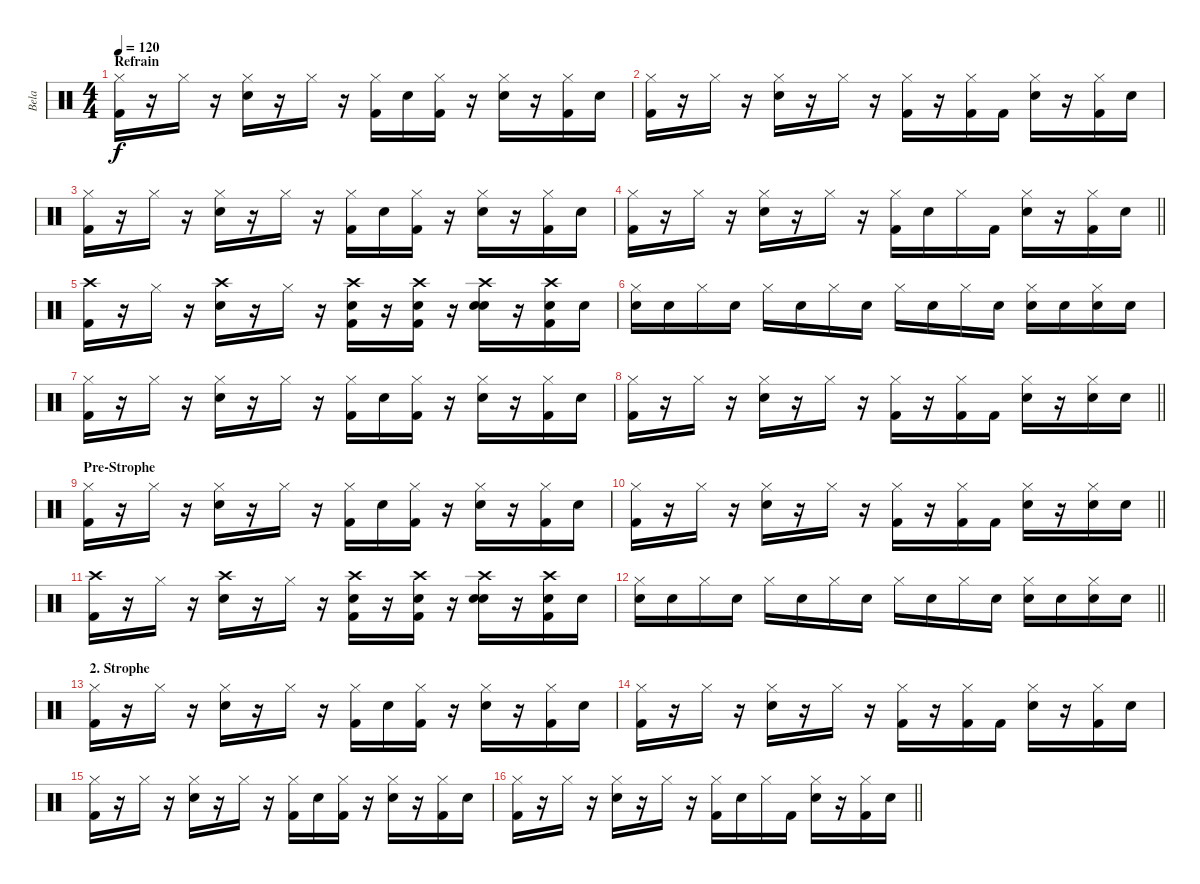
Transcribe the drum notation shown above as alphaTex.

\track ("Bela" "Bela") {instrument percussion}
\staff {score}
\articulation defaults
\ts (4 4)
\section ("" "Refrain")
\tempo 120
\clef neutral
\ks c
("Hi-Hat (closed)" "Kick (hit) 2").16{dy f} r.16 "Hi-Hat (closed)".16 r.16 ("Hi-Hat (closed)" "Electric Snare (hit)").16 r.16 "Hi-Hat (closed)".16 r.16 ("Hi-Hat (closed)" "Kick (hit) 2").16 "Electric Snare (hit)".16 ("Hi-Hat (closed)" "Kick (hit) 2").16 r.16 ("Hi-Hat (closed)" "Electric Snare (hit)").16 r.16 ("Hi-Hat (closed)" "Kick (hit) 2").16 "Electric Snare (hit)".16 |
("Hi-Hat (closed)" "Kick (hit) 2").16 r.16 "Hi-Hat (closed)".16 r.16 ("Hi-Hat (closed)" "Electric Snare (hit)").16 r.16 "Hi-Hat (closed)".16 r.16 ("Hi-Hat (closed)" "Kick (hit) 2").16 r.16 ("Hi-Hat (closed)" "Kick (hit) 2").16 "Kick (hit) 2".16 ("Hi-Hat (closed)" "Electric Snare (hit)").16 r.16 ("Hi-Hat (closed)" "Kick (hit) 2").16 "Electric Snare (hit)".16 |
("Hi-Hat (closed)" "Kick (hit) 2").16 r.16 "Hi-Hat (closed)".16 r.16 ("Hi-Hat (closed)" "Electric Snare (hit)").16 r.16 "Hi-Hat (closed)".16 r.16 ("Hi-Hat (closed)" "Kick (hit) 2").16 "Electric Snare (hit)".16 ("Hi-Hat (closed)" "Kick (hit) 2").16 r.16 ("Hi-Hat (closed)" "Electric Snare (hit)").16 r.16 ("Hi-Hat (closed)" "Kick (hit) 2").16 "Electric Snare (hit)".16 |
\barLineRight lightlight
("Hi-Hat (closed)" "Kick (hit) 2").16 r.16 "Hi-Hat (closed)".16 r.16 ("Hi-Hat (closed)" "Electric Snare (hit)").16 r.16 "Hi-Hat (closed)".16 r.16 ("Hi-Hat (closed)" "Kick (hit) 2").16 "Snare (hit) 2".16 "Hi-Hat (closed)".16 "Kick (hit) 2".16 ("Hi-Hat (closed)" "Electric Snare (hit)").16 r.16 ("Hi-Hat (closed)" "Kick (hit) 2").16 "Electric Snare (hit)".16 |
("Crash high (hit)" "Kick (hit) 2").16 r.16 "Hi-Hat (closed)".16 r.16 ("Crash high (hit)" "Electric Snare (hit)").16 r.16 "Hi-Hat (closed)".16 r.16 ("Crash high (hit)" "Kick (hit) 2" "Electric Snare (hit)").16 r.16 ("Crash high (hit)" "Kick (hit) 2" "Electric Snare (hit)").16 r.16 ("Crash high (hit)" "Electric Snare (hit)" "Snare (hit) 2").16 r.16 ("Crash high (hit)" "Kick (hit) 2" "Electric Snare (hit)").16 "Electric Snare (hit)".16 |
("Hi-Hat (closed)" "Electric Snare (hit)").16 "Snare (hit) 2".16 "Hi-Hat (closed)".16 "Electric Snare (hit)".16 "Hi-Hat (closed)".16 "Electric Snare (hit)".16 "Hi-Hat (closed)".16 "Electric Snare (hit)".16 "Hi-Hat (closed)".16 "Electric Snare (hit)".16 "Hi-Hat (closed)".16 "Electric Snare (hit)".16 ("Hi-Hat (closed)" "Electric Snare (hit)").16 "Electric Snare (hit)".16 ("Hi-Hat (closed)" "Electric Snare (hit)").16 "Electric Snare (hit)".16 |
("Hi-Hat (closed)" "Kick (hit) 2").16 r.16 "Hi-Hat (closed)".16 r.16 ("Hi-Hat (closed)" "Electric Snare (hit)").16 r.16 "Hi-Hat (closed)".16 r.16 ("Hi-Hat (closed)" "Kick (hit) 2").16 "Electric Snare (hit)".16 ("Hi-Hat (closed)" "Kick (hit) 2").16 r.16 ("Hi-Hat (closed)" "Electric Snare (hit)").16 r.16 ("Hi-Hat (closed)" "Kick (hit) 2").16 "Electric Snare (hit)".16 |
\barLineRight lightlight
("Hi-Hat (closed)" "Kick (hit) 2").16 r.16 "Hi-Hat (closed)".16 r.16 ("Hi-Hat (closed)" "Electric Snare (hit)").16 r.16 "Hi-Hat (closed)".16 r.16 ("Hi-Hat (closed)" "Kick (hit) 2").16 r.16 ("Hi-Hat (closed)" "Kick (hit) 2").16 "Kick (hit) 2".16 ("Hi-Hat (closed)" "Electric Snare (hit)").16 r.16 ("Hi-Hat (closed)" "Electric Snare (hit)").16 "Electric Snare (hit)".16 |
\section ("" "Pre-Strophe")
("Hi-Hat (closed)" "Kick (hit) 2").16 r.16 "Hi-Hat (closed)".16 r.16 ("Hi-Hat (closed)" "Electric Snare (hit)").16 r.16 "Hi-Hat (closed)".16 r.16 ("Hi-Hat (closed)" "Kick (hit) 2").16 "Electric Snare (hit)".16 ("Hi-Hat (closed)" "Kick (hit) 2").16 r.16 ("Hi-Hat (closed)" "Electric Snare (hit)").16 r.16 ("Hi-Hat (closed)" "Kick (hit) 2").16 "Electric Snare (hit)".16 |
\barLineRight lightlight
("Hi-Hat (closed)" "Kick (hit) 2").16 r.16 "Hi-Hat (closed)".16 r.16 ("Hi-Hat (closed)" "Electric Snare (hit)").16 r.16 "Hi-Hat (closed)".16 r.16 ("Hi-Hat (closed)" "Kick (hit) 2").16 r.16 ("Hi-Hat (closed)" "Kick (hit) 2").16 "Kick (hit) 2".16 ("Hi-Hat (closed)" "Electric Snare (hit)").16 r.16 ("Hi-Hat (closed)" "Electric Snare (hit)").16 "Electric Snare (hit)".16 |
("Crash high (hit)" "Kick (hit) 2").16 r.16 "Hi-Hat (closed)".16 r.16 ("Crash high (hit)" "Electric Snare (hit)").16 r.16 "Hi-Hat (closed)".16 r.16 ("Crash high (hit)" "Kick (hit) 2" "Electric Snare (hit)").16 r.16 ("Crash high (hit)" "Kick (hit) 2" "Electric Snare (hit)").16 r.16 ("Crash high (hit)" "Electric Snare (hit)" "Snare (hit) 2").16 r.16 ("Crash high (hit)" "Kick (hit) 2" "Electric Snare (hit)").16 "Electric Snare (hit)".16 |
\barLineRight lightlight
("Hi-Hat (closed)" "Electric Snare (hit)").16 "Snare (hit) 2".16 "Hi-Hat (closed)".16 "Electric Snare (hit)".16 "Hi-Hat (closed)".16 "Electric Snare (hit)".16 "Hi-Hat (closed)".16 "Electric Snare (hit)".16 "Hi-Hat (closed)".16 "Electric Snare (hit)".16 "Hi-Hat (closed)".16 "Electric Snare (hit)".16 ("Hi-Hat (closed)" "Electric Snare (hit)").16 "Electric Snare (hit)".16 ("Hi-Hat (closed)" "Electric Snare (hit)").16 "Electric Snare (hit)".16 |
\section ("" "2. Strophe")
("Hi-Hat (closed)" "Kick (hit) 2").16 r.16 "Hi-Hat (closed)".16 r.16 ("Hi-Hat (closed)" "Electric Snare (hit)").16 r.16 "Hi-Hat (closed)".16 r.16 ("Hi-Hat (closed)" "Kick (hit) 2").16 "Electric Snare (hit)".16 ("Hi-Hat (closed)" "Kick (hit) 2").16 r.16 ("Hi-Hat (closed)" "Electric Snare (hit)").16 r.16 ("Hi-Hat (closed)" "Kick (hit) 2").16 "Electric Snare (hit)".16 |
("Hi-Hat (closed)" "Kick (hit) 2").16 r.16 "Hi-Hat (closed)".16 r.16 ("Hi-Hat (closed)" "Electric Snare (hit)").16 r.16 "Hi-Hat (closed)".16 r.16 ("Hi-Hat (closed)" "Kick (hit) 2").16 r.16 ("Hi-Hat (closed)" "Kick (hit) 2").16 "Kick (hit) 2".16 ("Hi-Hat (closed)" "Electric Snare (hit)").16 r.16 ("Hi-Hat (closed)" "Kick (hit) 2").16 "Electric Snare (hit)".16 |
("Hi-Hat (closed)" "Kick (hit) 2").16 r.16 "Hi-Hat (closed)".16 r.16 ("Hi-Hat (closed)" "Electric Snare (hit)").16 r.16 "Hi-Hat (closed)".16 r.16 ("Hi-Hat (closed)" "Kick (hit) 2").16 "Electric Snare (hit)".16 ("Hi-Hat (closed)" "Kick (hit) 2").16 r.16 ("Hi-Hat (closed)" "Electric Snare (hit)").16 r.16 ("Hi-Hat (closed)" "Kick (hit) 2").16 "Electric Snare (hit)".16 |
\barLineRight lightlight
("Hi-Hat (closed)" "Kick (hit) 2").16 r.16 "Hi-Hat (closed)".16 r.16 ("Hi-Hat (closed)" "Electric Snare (hit)").16 r.16 "Hi-Hat (closed)".16 r.16 ("Hi-Hat (closed)" "Kick (hit) 2").16 "Snare (hit) 2".16 "Hi-Hat (closed)".16 "Kick (hit) 2".16 ("Hi-Hat (closed)" "Electric Snare (hit)").16 r.16 ("Hi-Hat (closed)" "Kick (hit) 2").16 "Electric Snare (hit)".16
